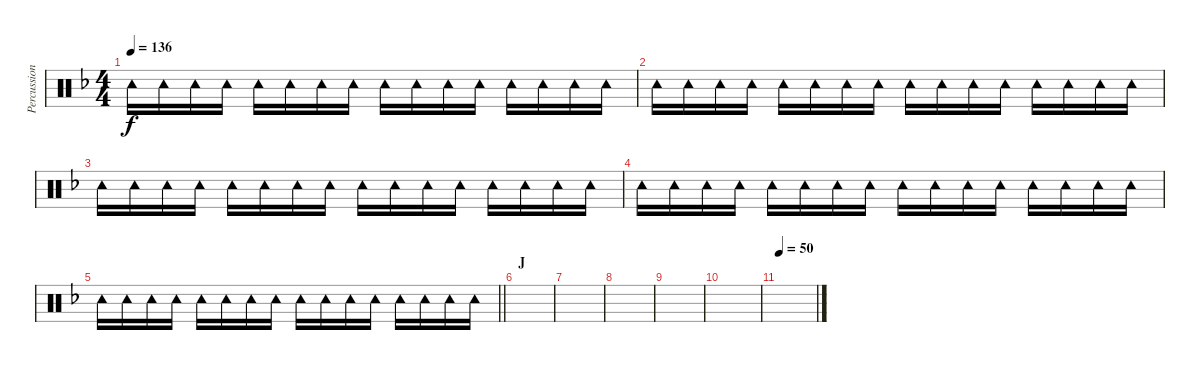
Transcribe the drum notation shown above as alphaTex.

\track ("Percussion" "Percussion") {instrument percussion}
\staff {score}
\articulation defaults
\ts (4 4)
\tempo 136
\clef neutral
\ks dminor "Tambourine (hit)".16{dy f} "Tambourine (hit)".16 "Tambourine (hit)".16 "Tambourine (hit)".16 "Tambourine (hit)".16 "Tambourine (hit)".16 "Tambourine (hit)".16 "Tambourine (hit)".16 "Tambourine (hit)".16 "Tambourine (hit)".16 "Tambourine (hit)".16 "Tambourine (hit)".16 "Tambourine (hit)".16 "Tambourine (hit)".16 "Tambourine (hit)".16 "Tambourine (hit)".16
|
"Tambourine (hit)".16 "Tambourine (hit)".16 "Tambourine (hit)".16 "Tambourine (hit)".16 "Tambourine (hit)".16 "Tambourine (hit)".16 "Tambourine (hit)".16 "Tambourine (hit)".16 "Tambourine (hit)".16 "Tambourine (hit)".16 "Tambourine (hit)".16 "Tambourine (hit)".16 "Tambourine (hit)".16 "Tambourine (hit)".16 "Tambourine (hit)".16 "Tambourine (hit)".16 |
"Tambourine (hit)".16 "Tambourine (hit)".16 "Tambourine (hit)".16 "Tambourine (hit)".16 "Tambourine (hit)".16 "Tambourine (hit)".16 "Tambourine (hit)".16 "Tambourine (hit)".16 "Tambourine (hit)".16 "Tambourine (hit)".16 "Tambourine (hit)".16 "Tambourine (hit)".16 "Tambourine (hit)".16 "Tambourine (hit)".16 "Tambourine (hit)".16 "Tambourine (hit)".16 |
"Tambourine (hit)".16 "Tambourine (hit)".16 "Tambourine (hit)".16 "Tambourine (hit)".16 "Tambourine (hit)".16 "Tambourine (hit)".16 "Tambourine (hit)".16 "Tambourine (hit)".16 "Tambourine (hit)".16 "Tambourine (hit)".16 "Tambourine (hit)".16 "Tambourine (hit)".16 "Tambourine (hit)".16 "Tambourine (hit)".16 "Tambourine (hit)".16 "Tambourine (hit)".16 |
\barLineRight lightlight "Tambourine (hit)".16 "Tambourine (hit)".16 "Tambourine (hit)".16 "Tambourine (hit)".16 "Tambourine (hit)".16 "Tambourine (hit)".16 "Tambourine (hit)".16 "Tambourine (hit)".16 "Tambourine (hit)".16 "Tambourine (hit)".16 "Tambourine (hit)".16 "Tambourine (hit)".16 "Tambourine (hit)".16 "Tambourine (hit)".16 "Tambourine (hit)".16 "Tambourine (hit)".16
|
\section ("" "J")
|
|
|
|
|
\tempo 50
